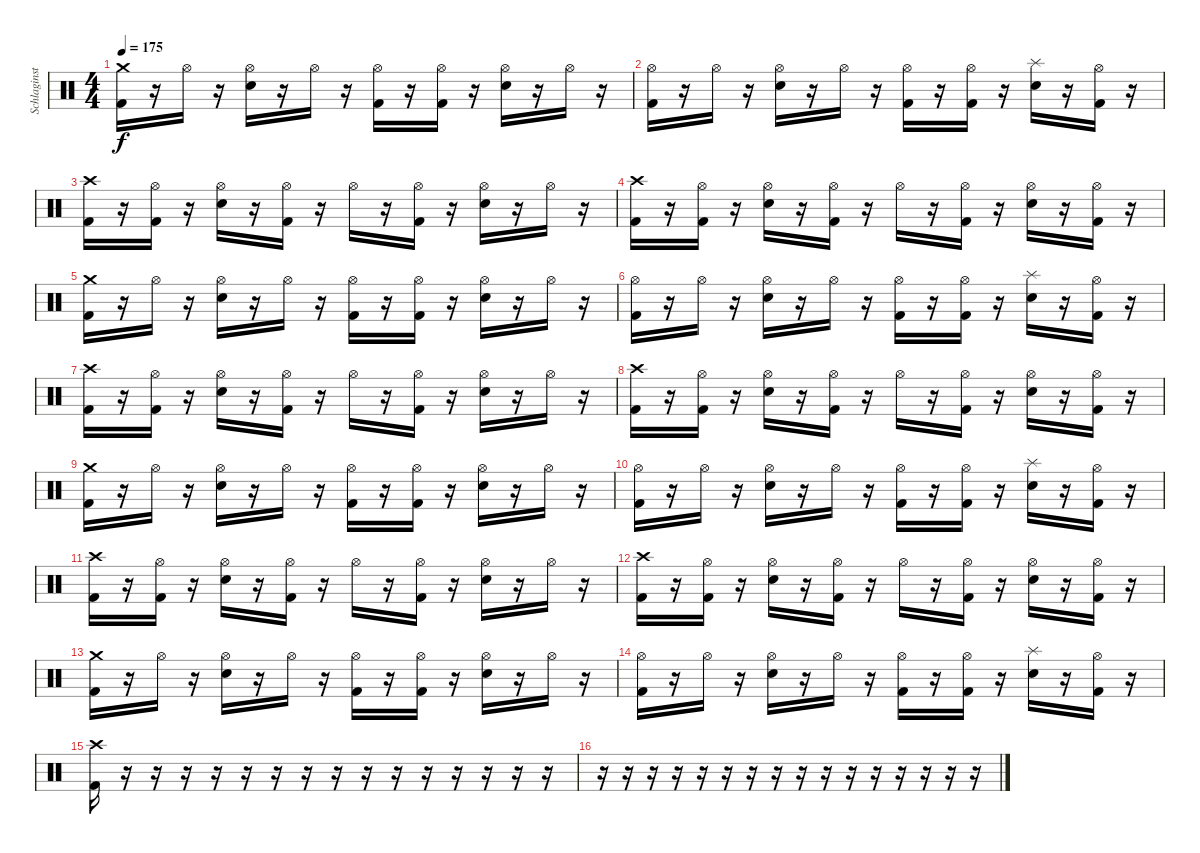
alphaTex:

\track ("Schlaginstrumente - Auswahl" "Schlaginst") {instrument percussion}
\staff {score}
\articulation defaults
\ts (4 4)
\tempo 175
\clef neutral
\ks c
("Crash medium (hit)" "Kick (hit) 2").16{dy f} r.16 "Hi-Hat (open)".16 r.16 ("Hi-Hat (open)" "Electric Snare (hit)").16 r.16 "Hi-Hat (open)".16 r.16 ("Hi-Hat (open)" "Kick (hit) 2").16 r.16 ("Hi-Hat (open)" "Kick (hit) 2").16 r.16 ("Hi-Hat (open)" "Electric Snare (hit)").16 r.16 "Hi-Hat (open)".16 r.16 |
("Hi-Hat (open)" "Kick (hit) 2").16 r.16 "Hi-Hat (open)".16 r.16 ("Hi-Hat (open)" "Electric Snare (hit)").16 r.16 "Hi-Hat (open)".16 r.16 ("Hi-Hat (open)" "Kick (hit) 2").16 r.16 ("Hi-Hat (open)" "Kick (hit) 2").16 r.16 ("Splash (hit)" "Electric Snare (hit)").16 r.16 ("Hi-Hat (open)" "Kick (hit) 2").16 r.16 |
("Crash high (hit)" "Kick (hit) 2").16 r.16 ("Hi-Hat (open)" "Kick (hit) 2").16 r.16 ("Hi-Hat (open)" "Electric Snare (hit)").16 r.16 ("Hi-Hat (open)" "Kick (hit) 2").16 r.16 "Hi-Hat (open)".16 r.16 ("Hi-Hat (open)" "Kick (hit) 2").16 r.16 ("Hi-Hat (open)" "Electric Snare (hit)").16 r.16 "Hi-Hat (open)".16 r.16 |
("Crash high (hit)" "Kick (hit) 2").16 r.16 ("Hi-Hat (open)" "Kick (hit) 2").16 r.16 ("Hi-Hat (open)" "Electric Snare (hit)").16 r.16 ("Hi-Hat (open)" "Kick (hit) 2").16 r.16 "Hi-Hat (open)".16 r.16 ("Hi-Hat (open)" "Kick (hit) 2").16 r.16 ("Hi-Hat (open)" "Electric Snare (hit)").16 r.16 ("Hi-Hat (open)" "Kick (hit) 2").16 r.16 |
("Crash medium (hit)" "Kick (hit) 2").16 r.16 "Hi-Hat (open)".16 r.16 ("Hi-Hat (open)" "Electric Snare (hit)").16 r.16 "Hi-Hat (open)".16 r.16 ("Hi-Hat (open)" "Kick (hit) 2").16 r.16 ("Hi-Hat (open)" "Kick (hit) 2").16 r.16 ("Hi-Hat (open)" "Electric Snare (hit)").16 r.16 "Hi-Hat (open)".16 r.16 |
("Hi-Hat (open)" "Kick (hit) 2").16 r.16 "Hi-Hat (open)".16 r.16 ("Hi-Hat (open)" "Electric Snare (hit)").16 r.16 "Hi-Hat (open)".16 r.16 ("Hi-Hat (open)" "Kick (hit) 2").16 r.16 ("Hi-Hat (open)" "Kick (hit) 2").16 r.16 ("Splash (hit)" "Electric Snare (hit)").16 r.16 ("Hi-Hat (open)" "Kick (hit) 2").16 r.16 |
("Crash high (hit)" "Kick (hit) 2").16 r.16 ("Hi-Hat (open)" "Kick (hit) 2").16 r.16 ("Hi-Hat (open)" "Electric Snare (hit)").16 r.16 ("Hi-Hat (open)" "Kick (hit) 2").16 r.16 "Hi-Hat (open)".16 r.16 ("Hi-Hat (open)" "Kick (hit) 2").16 r.16 ("Hi-Hat (open)" "Electric Snare (hit)").16 r.16 "Hi-Hat (open)".16 r.16 |
("Crash high (hit)" "Kick (hit) 2").16 r.16 ("Hi-Hat (open)" "Kick (hit) 2").16 r.16 ("Hi-Hat (open)" "Electric Snare (hit)").16 r.16 ("Hi-Hat (open)" "Kick (hit) 2").16 r.16 "Hi-Hat (open)".16 r.16 ("Hi-Hat (open)" "Kick (hit) 2").16 r.16 ("Hi-Hat (open)" "Electric Snare (hit)").16 r.16 ("Hi-Hat (open)" "Kick (hit) 2").16 r.16 |
("Crash medium (hit)" "Kick (hit) 2").16 r.16 "Hi-Hat (open)".16 r.16 ("Hi-Hat (open)" "Electric Snare (hit)").16 r.16 "Hi-Hat (open)".16 r.16 ("Hi-Hat (open)" "Kick (hit) 2").16 r.16 ("Hi-Hat (open)" "Kick (hit) 2").16 r.16 ("Hi-Hat (open)" "Electric Snare (hit)").16 r.16 "Hi-Hat (open)".16 r.16 |
("Hi-Hat (open)" "Kick (hit) 2").16 r.16 "Hi-Hat (open)".16 r.16 ("Hi-Hat (open)" "Electric Snare (hit)").16 r.16 "Hi-Hat (open)".16 r.16 ("Hi-Hat (open)" "Kick (hit) 2").16 r.16 ("Hi-Hat (open)" "Kick (hit) 2").16 r.16 ("Splash (hit)" "Electric Snare (hit)").16 r.16 ("Hi-Hat (open)" "Kick (hit) 2").16 r.16 |
("Crash high (hit)" "Kick (hit) 2").16 r.16 ("Hi-Hat (open)" "Kick (hit) 2").16 r.16 ("Hi-Hat (open)" "Electric Snare (hit)").16 r.16 ("Hi-Hat (open)" "Kick (hit) 2").16 r.16 "Hi-Hat (open)".16 r.16 ("Hi-Hat (open)" "Kick (hit) 2").16 r.16 ("Hi-Hat (open)" "Electric Snare (hit)").16 r.16 "Hi-Hat (open)".16 r.16 |
("Crash high (hit)" "Kick (hit) 2").16 r.16 ("Hi-Hat (open)" "Kick (hit) 2").16 r.16 ("Hi-Hat (open)" "Electric Snare (hit)").16 r.16 ("Hi-Hat (open)" "Kick (hit) 2").16 r.16 "Hi-Hat (open)".16 r.16 ("Hi-Hat (open)" "Kick (hit) 2").16 r.16 ("Hi-Hat (open)" "Electric Snare (hit)").16 r.16 ("Hi-Hat (open)" "Kick (hit) 2").16 r.16 |
("Crash medium (hit)" "Kick (hit) 2").16 r.16 "Hi-Hat (open)".16 r.16 ("Hi-Hat (open)" "Electric Snare (hit)").16 r.16 "Hi-Hat (open)".16 r.16 ("Hi-Hat (open)" "Kick (hit) 2").16 r.16 ("Hi-Hat (open)" "Kick (hit) 2").16 r.16 ("Hi-Hat (open)" "Electric Snare (hit)").16 r.16 "Hi-Hat (open)".16 r.16 |
("Hi-Hat (open)" "Kick (hit) 2").16 r.16 "Hi-Hat (open)".16 r.16 ("Hi-Hat (open)" "Electric Snare (hit)").16 r.16 "Hi-Hat (open)".16 r.16 ("Hi-Hat (open)" "Kick (hit) 2").16 r.16 ("Hi-Hat (open)" "Kick (hit) 2").16 r.16 ("Splash (hit)" "Electric Snare (hit)").16 r.16 ("Hi-Hat (open)" "Kick (hit) 2").16 r.16 |
("Crash high (hit)" "Kick (hit) 2").16 r.16 r.16 r.16 r.16 r.16 r.16 r.16 r.16 r.16 r.16 r.16 r.16 r.16 r.16 r.16 |
r.16 r.16 r.16 r.16 r.16 r.16 r.16 r.16 r.16 r.16 r.16 r.16 r.16 r.16 r.16 r.16
